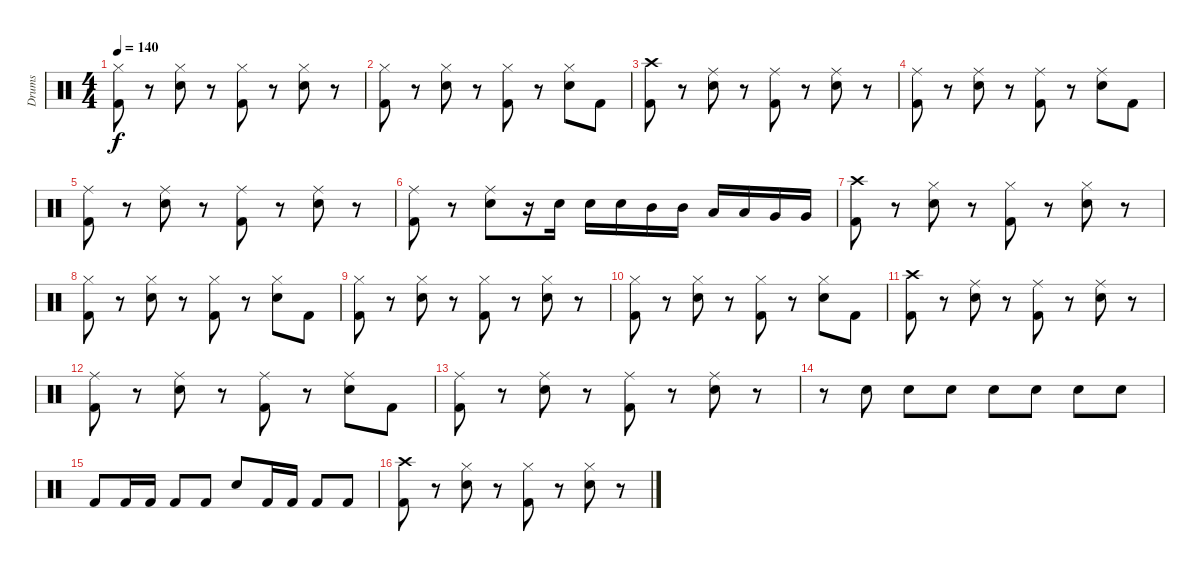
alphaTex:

\track ("Drums" "Drums") {instrument percussion}
\staff {score}
\articulation defaults
\ts (4 4)
\tempo 140
\clef neutral
\ks c
("Hi-Hat (closed)" "Kick (hit) 2").8{dy f} r.8 ("Hi-Hat (closed)" "Electric Snare (hit)").8 r.8 ("Hi-Hat (closed)" "Kick (hit) 2").8 r.8 ("Hi-Hat (closed)" "Electric Snare (hit)").8 r.8 |
("Hi-Hat (closed)" "Kick (hit) 2").8 r.8 ("Hi-Hat (closed)" "Electric Snare (hit)").8 r.8 ("Hi-Hat (closed)" "Kick (hit) 2").8 r.8 ("Hi-Hat (closed)" "Electric Snare (hit)").8 "Kick (hit) 2".8 |
("Crash high (hit)" "Kick (hit) 2").8 r.8 ("Ride (middle)" "Electric Snare (hit)").8 r.8 ("Ride (middle)" "Kick (hit) 2").8 r.8 ("Ride (middle)" "Electric Snare (hit)").8 r.8 |
("Ride (middle)" "Kick (hit) 2").8 r.8 ("Ride (middle)" "Electric Snare (hit)").8 r.8 ("Ride (middle)" "Kick (hit) 2").8 r.8 ("Ride (middle)" "Electric Snare (hit)").8 "Kick (hit) 2".8 |
("Ride (middle)" "Kick (hit) 2").8 r.8 ("Ride (middle)" "Electric Snare (hit)").8 r.8 ("Ride (middle)" "Kick (hit) 2").8 r.8 ("Ride (middle)" "Electric Snare (hit)").8 r.8 |
("Ride (middle)" "Kick (hit) 2").8 r.8 ("Ride (middle)" "Electric Snare (hit)").8 r.16 "Electric Snare (hit)".16 "Electric Snare (hit)".16 "Electric Snare (hit)".16 "Mid Tom (hit)".16 "Mid Tom (hit)".16 "Low Tom (hit)".16 "Low Tom (hit)".16 "Very Low Tom (hit)".16 "Very Low Tom (hit)".16 |
("Crash high (hit)" "Kick (hit) 2").8 r.8 ("Hi-Hat (closed)" "Electric Snare (hit)").8 r.8 ("Hi-Hat (closed)" "Kick (hit) 2").8 r.8 ("Hi-Hat (closed)" "Electric Snare (hit)").8 r.8 |
("Hi-Hat (closed)" "Kick (hit) 2").8 r.8 ("Hi-Hat (closed)" "Electric Snare (hit)").8 r.8 ("Hi-Hat (closed)" "Kick (hit) 2").8 r.8 ("Hi-Hat (closed)" "Electric Snare (hit)").8 "Kick (hit) 2".8 |
("Hi-Hat (closed)" "Kick (hit) 2").8 r.8 ("Hi-Hat (closed)" "Electric Snare (hit)").8 r.8 ("Hi-Hat (closed)" "Kick (hit) 2").8 r.8 ("Hi-Hat (closed)" "Electric Snare (hit)").8 r.8 |
("Hi-Hat (closed)" "Kick (hit) 2").8 r.8 ("Hi-Hat (closed)" "Electric Snare (hit)").8 r.8 ("Hi-Hat (closed)" "Kick (hit) 2").8 r.8 ("Hi-Hat (closed)" "Electric Snare (hit)").8 "Kick (hit) 2".8 |
("Crash high (hit)" "Kick (hit) 2").8 r.8 ("Ride (middle)" "Electric Snare (hit)").8 r.8 ("Ride (middle)" "Kick (hit) 2").8 r.8 ("Ride (middle)" "Electric Snare (hit)").8 r.8 |
("Ride (middle)" "Kick (hit) 2").8 r.8 ("Ride (middle)" "Electric Snare (hit)").8 r.8 ("Ride (middle)" "Kick (hit) 2").8 r.8 ("Ride (middle)" "Electric Snare (hit)").8 "Kick (hit) 2".8 |
("Ride (middle)" "Kick (hit) 2").8 r.8 ("Ride (middle)" "Electric Snare (hit)").8 r.8 ("Ride (middle)" "Kick (hit) 2").8 r.8 ("Ride (middle)" "Electric Snare (hit)").8 r.8 |
r.8 "Electric Snare (hit)".8 "Electric Snare (hit)".8 "Electric Snare (hit)".8 "Electric Snare (hit)".8 "Electric Snare (hit)".8 "Electric Snare (hit)".8 "Electric Snare (hit)".8 |
"Kick (hit) 2".8 "Kick (hit) 2".16 "Kick (hit) 2".16 "Kick (hit) 2".8 "Kick (hit) 2".8 "Electric Snare (hit)".8 "Kick (hit) 2".16 "Kick (hit) 2".16 "Kick (hit) 2".8 "Kick (hit) 2".8 |
("Crash high (hit)" "Kick (hit) 2").8 r.8 ("Hi-Hat (closed)" "Electric Snare (hit)").8 r.8 ("Hi-Hat (closed)" "Kick (hit) 2").8 r.8 ("Hi-Hat (closed)" "Electric Snare (hit)").8 r.8
